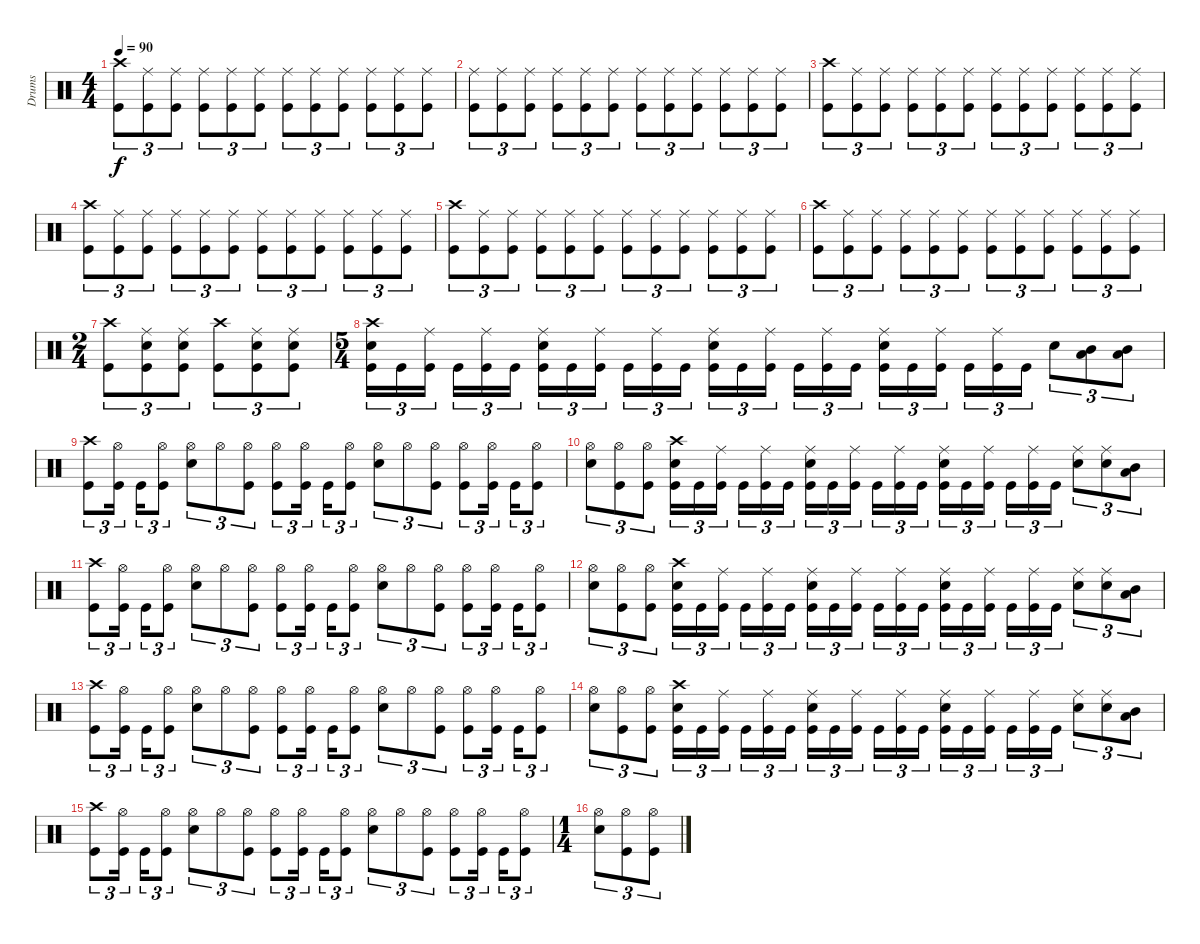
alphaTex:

\track ("Drums" "Drums") {instrument percussion}
\staff {score}
\articulation defaults
\ts (4 4)
\tempo 90
\clef neutral
\ks c
("Crash high (hit)" "Kick (hit)").8{tu (3 2) dy f} ("Ride (middle)" "Kick (hit)").8{tu (3 2)} ("Ride (middle)" "Kick (hit)").8{tu (3 2)} ("Ride (middle)" "Kick (hit)").8{tu (3 2)} ("Ride (middle)" "Kick (hit)").8{tu (3 2)} ("Ride (middle)" "Kick (hit)").8{tu (3 2)} ("Ride (middle)" "Kick (hit)").8{tu (3 2)} ("Ride (middle)" "Kick (hit)").8{tu (3 2)} ("Ride (middle)" "Kick (hit)").8{tu (3 2)} ("Ride (middle)" "Kick (hit)").8{tu (3 2)} ("Ride (middle)" "Kick (hit)").8{tu (3 2)} ("Ride (middle)" "Kick (hit)").8{tu (3 2)} |
("Ride (middle)" "Kick (hit)").8{tu (3 2)} ("Ride (middle)" "Kick (hit)").8{tu (3 2)} ("Ride (middle)" "Kick (hit)").8{tu (3 2)} ("Ride (middle)" "Kick (hit)").8{tu (3 2)} ("Ride (middle)" "Kick (hit)").8{tu (3 2)} ("Ride (middle)" "Kick (hit)").8{tu (3 2)} ("Ride (middle)" "Kick (hit)").8{tu (3 2)} ("Ride (middle)" "Kick (hit)").8{tu (3 2)} ("Ride (middle)" "Kick (hit)").8{tu (3 2)} ("Ride (middle)" "Kick (hit)").8{tu (3 2)} ("Ride (middle)" "Kick (hit)").8{tu (3 2)} ("Ride (middle)" "Kick (hit)").8{tu (3 2)} |
("Crash high (hit)" "Kick (hit)").8{tu (3 2)} ("Ride (middle)" "Kick (hit)").8{tu (3 2)} ("Ride (middle)" "Kick (hit)").8{tu (3 2)} ("Ride (middle)" "Kick (hit)").8{tu (3 2)} ("Ride (middle)" "Kick (hit)").8{tu (3 2)} ("Ride (middle)" "Kick (hit)").8{tu (3 2)} ("Ride (middle)" "Kick (hit)").8{tu (3 2)} ("Ride (middle)" "Kick (hit)").8{tu (3 2)} ("Ride (middle)" "Kick (hit)").8{tu (3 2)} ("Ride (middle)" "Kick (hit)").8{tu (3 2)} ("Ride (middle)" "Kick (hit)").8{tu (3 2)} ("Ride (middle)" "Kick (hit)").8{tu (3 2)} |
("Crash high (hit)" "Kick (hit)").8{tu (3 2)} ("Ride (middle)" "Kick (hit)").8{tu (3 2)} ("Ride (middle)" "Kick (hit)").8{tu (3 2)} ("Ride (middle)" "Kick (hit)").8{tu (3 2)} ("Ride (middle)" "Kick (hit)").8{tu (3 2)} ("Ride (middle)" "Kick (hit)").8{tu (3 2)} ("Ride (middle)" "Kick (hit)").8{tu (3 2)} ("Ride (middle)" "Kick (hit)").8{tu (3 2)} ("Ride (middle)" "Kick (hit)").8{tu (3 2)} ("Ride (middle)" "Kick (hit)").8{tu (3 2)} ("Ride (middle)" "Kick (hit)").8{tu (3 2)} ("Ride (middle)" "Kick (hit)").8{tu (3 2)} |
("Crash high (hit)" "Kick (hit)").8{tu (3 2)} ("Ride (middle)" "Kick (hit)").8{tu (3 2)} ("Ride (middle)" "Kick (hit)").8{tu (3 2)} ("Ride (middle)" "Kick (hit)").8{tu (3 2)} ("Ride (middle)" "Kick (hit)").8{tu (3 2)} ("Ride (middle)" "Kick (hit)").8{tu (3 2)} ("Ride (middle)" "Kick (hit)").8{tu (3 2)} ("Ride (middle)" "Kick (hit)").8{tu (3 2)} ("Ride (middle)" "Kick (hit)").8{tu (3 2)} ("Ride (middle)" "Kick (hit)").8{tu (3 2)} ("Ride (middle)" "Kick (hit)").8{tu (3 2)} ("Ride (middle)" "Kick (hit)").8{tu (3 2)} |
("Crash high (hit)" "Kick (hit)").8{tu (3 2)} ("Ride (middle)" "Kick (hit)").8{tu (3 2)} ("Ride (middle)" "Kick (hit)").8{tu (3 2)} ("Ride (middle)" "Kick (hit)").8{tu (3 2)} ("Ride (middle)" "Kick (hit)").8{tu (3 2)} ("Ride (middle)" "Kick (hit)").8{tu (3 2)} ("Ride (middle)" "Kick (hit)").8{tu (3 2)} ("Ride (middle)" "Kick (hit)").8{tu (3 2)} ("Ride (middle)" "Kick (hit)").8{tu (3 2)} ("Ride (middle)" "Kick (hit)").8{tu (3 2)} ("Ride (middle)" "Kick (hit)").8{tu (3 2)} ("Ride (middle)" "Kick (hit)").8{tu (3 2)} |
\ts (2 4)
("Crash high (hit)" "Kick (hit)").8{tu (3 2)} ("Ride (middle)" "Electric Snare (hit)" "Kick (hit)").8{tu (3 2)} ("Ride (middle)" "Electric Snare (hit)" "Kick (hit)").8{tu (3 2)} ("Crash high (hit)" "Kick (hit)").8{tu (3 2)} ("Ride (middle)" "Electric Snare (hit)" "Kick (hit)").8{tu (3 2)} ("Ride (middle)" "Electric Snare (hit)" "Kick (hit)").8{tu (3 2)} |
\ts (5 4)
("Crash high (hit)" "Electric Snare (hit)" "Kick (hit)").16{tu (3 2)} "Kick (hit)".16{tu (3 2)} ("Ride (middle)" "Kick (hit)").16{tu (3 2)} "Kick (hit)".16{tu (3 2)} ("Ride (middle)" "Kick (hit)").16{tu (3 2)} "Kick (hit)".16{tu (3 2)} ("Ride (middle)" "Electric Snare (hit)" "Kick (hit)").16{tu (3 2)} "Kick (hit)".16{tu (3 2)} ("Ride (middle)" "Kick (hit)").16{tu (3 2)} "Kick (hit)".16{tu (3 2)} ("Ride (middle)" "Kick (hit)").16{tu (3 2)} "Kick (hit)".16{tu (3 2)} ("Ride (middle)" "Electric Snare (hit)" "Kick (hit)").16{tu (3 2)} "Kick (hit)".16{tu (3 2)} ("Ride (middle)" "Kick (hit)").16{tu (3 2)} "Kick (hit)".16{tu (3 2)} ("Ride (middle)" "Kick (hit)").16{tu (3 2)} "Kick (hit)".16{tu (3 2)} ("Ride (middle)" "Electric Snare (hit)" "Kick (hit)").16{tu (3 2)} "Kick (hit)".16{tu (3 2)} ("Ride (middle)" "Kick (hit)").16{tu (3 2)} "Kick (hit)".16{tu (3 2)} ("Ride (middle)" "Kick (hit)").16{tu (3 2)} "Kick (hit)".16{tu (3 2)} "Electric Snare (hit)".8{tu (3 2)} ("Low Tom (hit)" "Mid Tom (hit)").8{tu (3 2)} ("Low Tom (hit)" "Mid Tom (hit)").8{tu (3 2)} |
("Crash high (hit)" "Kick (hit)").8{tu (3 2)} ("Hi-Hat (open)" "Kick (hit)").16{tu (3 2)} "Kick (hit)".16{tu (3 2)} ("Hi-Hat (open)" "Kick (hit)").8{tu (3 2)} ("Hi-Hat (open)" "Electric Snare (hit)").8{tu (3 2)} "Hi-Hat (open)".8{tu (3 2)} ("Hi-Hat (open)" "Kick (hit)").8{tu (3 2)} ("Hi-Hat (open)" "Kick (hit)").8{tu (3 2)} ("Hi-Hat (open)" "Kick (hit)").16{tu (3 2)} "Kick (hit)".16{tu (3 2)} ("Hi-Hat (open)" "Kick (hit)").8{tu (3 2)} ("Hi-Hat (open)" "Electric Snare (hit)").8{tu (3 2)} "Hi-Hat (open)".8{tu (3 2)} ("Hi-Hat (open)" "Kick (hit)").8{tu (3 2)} ("Hi-Hat (open)" "Kick (hit)").8{tu (3 2)} ("Hi-Hat (open)" "Kick (hit)").16{tu (3 2)} "Kick (hit)".16{tu (3 2)} ("Hi-Hat (open)" "Kick (hit)").8{tu (3 2)} |
("Hi-Hat (open)" "Electric Snare (hit)").8{tu (3 2)} ("Hi-Hat (open)" "Kick (hit)").8{tu (3 2)} ("Hi-Hat (open)" "Kick (hit)").8{tu (3 2)} ("Crash high (hit)" "Electric Snare (hit)" "Kick (hit)").16{tu (3 2)} "Kick (hit)".16{tu (3 2)} ("Ride (middle)" "Kick (hit)").16{tu (3 2)} "Kick (hit)".16{tu (3 2)} ("Ride (middle)" "Kick (hit)").16{tu (3 2)} "Kick (hit)".16{tu (3 2)} ("Ride (middle)" "Electric Snare (hit)" "Kick (hit)").16{tu (3 2)} "Kick (hit)".16{tu (3 2)} ("Ride (middle)" "Kick (hit)").16{tu (3 2)} "Kick (hit)".16{tu (3 2)} ("Ride (middle)" "Kick (hit)").16{tu (3 2)} "Kick (hit)".16{tu (3 2)} ("Ride (middle)" "Electric Snare (hit)" "Kick (hit)").16{tu (3 2)} "Kick (hit)".16{tu (3 2)} ("Ride (middle)" "Kick (hit)").16{tu (3 2)} "Kick (hit)".16{tu (3 2)} ("Ride (middle)" "Kick (hit)").16{tu (3 2)} "Kick (hit)".16{tu (3 2)} ("Ride (middle)" "Electric Snare (hit)").8{tu (3 2)} ("Ride (middle)" "Electric Snare (hit)").8{tu (3 2)} ("Low Tom (hit)" "Mid Tom (hit)").8{tu (3 2)} |
("Crash high (hit)" "Kick (hit)").8{tu (3 2)} ("Hi-Hat (open)" "Kick (hit)").16{tu (3 2)} "Kick (hit)".16{tu (3 2)} ("Hi-Hat (open)" "Kick (hit)").8{tu (3 2)} ("Hi-Hat (open)" "Electric Snare (hit)").8{tu (3 2)} "Hi-Hat (open)".8{tu (3 2)} ("Hi-Hat (open)" "Kick (hit)").8{tu (3 2)} ("Hi-Hat (open)" "Kick (hit)").8{tu (3 2)} ("Hi-Hat (open)" "Kick (hit)").16{tu (3 2)} "Kick (hit)".16{tu (3 2)} ("Hi-Hat (open)" "Kick (hit)").8{tu (3 2)} ("Hi-Hat (open)" "Electric Snare (hit)").8{tu (3 2)} "Hi-Hat (open)".8{tu (3 2)} ("Hi-Hat (open)" "Kick (hit)").8{tu (3 2)} ("Hi-Hat (open)" "Kick (hit)").8{tu (3 2)} ("Hi-Hat (open)" "Kick (hit)").16{tu (3 2)} "Kick (hit)".16{tu (3 2)} ("Hi-Hat (open)" "Kick (hit)").8{tu (3 2)} |
("Hi-Hat (open)" "Electric Snare (hit)").8{tu (3 2)} ("Hi-Hat (open)" "Kick (hit)").8{tu (3 2)} ("Hi-Hat (open)" "Kick (hit)").8{tu (3 2)} ("Crash high (hit)" "Electric Snare (hit)" "Kick (hit)").16{tu (3 2)} "Kick (hit)".16{tu (3 2)} ("Ride (middle)" "Kick (hit)").16{tu (3 2)} "Kick (hit)".16{tu (3 2)} ("Ride (middle)" "Kick (hit)").16{tu (3 2)} "Kick (hit)".16{tu (3 2)} ("Ride (middle)" "Electric Snare (hit)" "Kick (hit)").16{tu (3 2)} "Kick (hit)".16{tu (3 2)} ("Ride (middle)" "Kick (hit)").16{tu (3 2)} "Kick (hit)".16{tu (3 2)} ("Ride (middle)" "Kick (hit)").16{tu (3 2)} "Kick (hit)".16{tu (3 2)} ("Ride (middle)" "Electric Snare (hit)" "Kick (hit)").16{tu (3 2)} "Kick (hit)".16{tu (3 2)} ("Ride (middle)" "Kick (hit)").16{tu (3 2)} "Kick (hit)".16{tu (3 2)} ("Ride (middle)" "Kick (hit)").16{tu (3 2)} "Kick (hit)".16{tu (3 2)} ("Ride (middle)" "Electric Snare (hit)").8{tu (3 2)} ("Ride (middle)" "Electric Snare (hit)").8{tu (3 2)} ("Low Tom (hit)" "Mid Tom (hit)").8{tu (3 2)} |
("Crash high (hit)" "Kick (hit)").8{tu (3 2)} ("Hi-Hat (open)" "Kick (hit)").16{tu (3 2)} "Kick (hit)".16{tu (3 2)} ("Hi-Hat (open)" "Kick (hit)").8{tu (3 2)} ("Hi-Hat (open)" "Electric Snare (hit)").8{tu (3 2)} "Hi-Hat (open)".8{tu (3 2)} ("Hi-Hat (open)" "Kick (hit)").8{tu (3 2)} ("Hi-Hat (open)" "Kick (hit)").8{tu (3 2)} ("Hi-Hat (open)" "Kick (hit)").16{tu (3 2)} "Kick (hit)".16{tu (3 2)} ("Hi-Hat (open)" "Kick (hit)").8{tu (3 2)} ("Hi-Hat (open)" "Electric Snare (hit)").8{tu (3 2)} "Hi-Hat (open)".8{tu (3 2)} ("Hi-Hat (open)" "Kick (hit)").8{tu (3 2)} ("Hi-Hat (open)" "Kick (hit)").8{tu (3 2)} ("Hi-Hat (open)" "Kick (hit)").16{tu (3 2)} "Kick (hit)".16{tu (3 2)} ("Hi-Hat (open)" "Kick (hit)").8{tu (3 2)} |
("Hi-Hat (open)" "Electric Snare (hit)").8{tu (3 2)} ("Hi-Hat (open)" "Kick (hit)").8{tu (3 2)} ("Hi-Hat (open)" "Kick (hit)").8{tu (3 2)} ("Crash high (hit)" "Electric Snare (hit)" "Kick (hit)").16{tu (3 2)} "Kick (hit)".16{tu (3 2)} ("Ride (middle)" "Kick (hit)").16{tu (3 2)} "Kick (hit)".16{tu (3 2)} ("Ride (middle)" "Kick (hit)").16{tu (3 2)} "Kick (hit)".16{tu (3 2)} ("Ride (middle)" "Electric Snare (hit)" "Kick (hit)").16{tu (3 2)} "Kick (hit)".16{tu (3 2)} ("Ride (middle)" "Kick (hit)").16{tu (3 2)} "Kick (hit)".16{tu (3 2)} ("Ride (middle)" "Kick (hit)").16{tu (3 2)} "Kick (hit)".16{tu (3 2)} ("Ride (middle)" "Electric Snare (hit)" "Kick (hit)").16{tu (3 2)} "Kick (hit)".16{tu (3 2)} ("Ride (middle)" "Kick (hit)").16{tu (3 2)} "Kick (hit)".16{tu (3 2)} ("Ride (middle)" "Kick (hit)").16{tu (3 2)} "Kick (hit)".16{tu (3 2)} ("Ride (middle)" "Electric Snare (hit)").8{tu (3 2)} ("Ride (middle)" "Electric Snare (hit)").8{tu (3 2)} ("Low Tom (hit)" "Mid Tom (hit)").8{tu (3 2)} |
("Crash high (hit)" "Kick (hit)").8{tu (3 2)} ("Hi-Hat (open)" "Kick (hit)").16{tu (3 2)} "Kick (hit)".16{tu (3 2)} ("Hi-Hat (open)" "Kick (hit)").8{tu (3 2)} ("Hi-Hat (open)" "Electric Snare (hit)").8{tu (3 2)} "Hi-Hat (open)".8{tu (3 2)} ("Hi-Hat (open)" "Kick (hit)").8{tu (3 2)} ("Hi-Hat (open)" "Kick (hit)").8{tu (3 2)} ("Hi-Hat (open)" "Kick (hit)").16{tu (3 2)} "Kick (hit)".16{tu (3 2)} ("Hi-Hat (open)" "Kick (hit)").8{tu (3 2)} ("Hi-Hat (open)" "Electric Snare (hit)").8{tu (3 2)} "Hi-Hat (open)".8{tu (3 2)} ("Hi-Hat (open)" "Kick (hit)").8{tu (3 2)} ("Hi-Hat (open)" "Kick (hit)").8{tu (3 2)} ("Hi-Hat (open)" "Kick (hit)").16{tu (3 2)} "Kick (hit)".16{tu (3 2)} ("Hi-Hat (open)" "Kick (hit)").8{tu (3 2)} |
\ts (1 4)
("Hi-Hat (open)" "Electric Snare (hit)").8{tu (3 2)} ("Hi-Hat (open)" "Kick (hit)").8{tu (3 2)} ("Hi-Hat (open)" "Kick (hit)").8{tu (3 2)}
